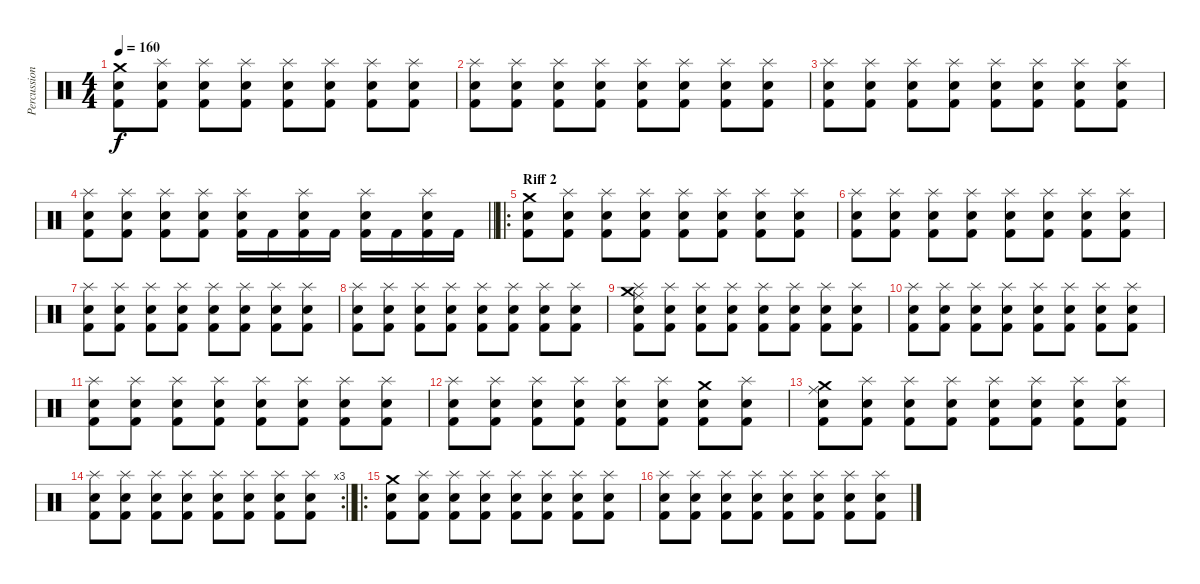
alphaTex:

\track ("Percussions" "Percussion") {instrument percussion}
\staff {score}
\articulation defaults
\ts (4 4)
\tempo 160
\clef neutral
\ks c
("Crash medium (hit)" "Electric Snare (hit)" "Kick (hit) 2").8{dy f} ("Splash (hit)" "Electric Snare (hit)" "Kick (hit) 2").8 ("Splash (hit)" "Electric Snare (hit)" "Kick (hit) 2").8 ("Splash (hit)" "Electric Snare (hit)" "Kick (hit) 2").8 ("Splash (hit)" "Electric Snare (hit)" "Kick (hit) 2").8 ("Splash (hit)" "Electric Snare (hit)" "Kick (hit) 2").8 ("Splash (hit)" "Electric Snare (hit)" "Kick (hit) 2").8 ("Splash (hit)" "Electric Snare (hit)" "Kick (hit) 2").8 |
("Splash (hit)" "Electric Snare (hit)" "Kick (hit) 2").8 ("Splash (hit)" "Electric Snare (hit)" "Kick (hit) 2").8 ("Splash (hit)" "Electric Snare (hit)" "Kick (hit) 2").8 ("Splash (hit)" "Electric Snare (hit)" "Kick (hit) 2").8 ("Splash (hit)" "Electric Snare (hit)" "Kick (hit) 2").8 ("Splash (hit)" "Electric Snare (hit)" "Kick (hit) 2").8 ("Splash (hit)" "Electric Snare (hit)" "Kick (hit) 2").8 ("Splash (hit)" "Electric Snare (hit)" "Kick (hit) 2").8 |
("Splash (hit)" "Electric Snare (hit)" "Kick (hit) 2").8 ("Splash (hit)" "Electric Snare (hit)" "Kick (hit) 2").8 ("Splash (hit)" "Electric Snare (hit)" "Kick (hit) 2").8 ("Splash (hit)" "Electric Snare (hit)" "Kick (hit) 2").8 ("Splash (hit)" "Electric Snare (hit)" "Kick (hit) 2").8 ("Splash (hit)" "Electric Snare (hit)" "Kick (hit) 2").8 ("Splash (hit)" "Electric Snare (hit)" "Kick (hit) 2").8 ("Splash (hit)" "Electric Snare (hit)" "Kick (hit) 2").8 |
\barLineRight lightlight
("Splash (hit)" "Electric Snare (hit)" "Kick (hit) 2").8 ("Splash (hit)" "Electric Snare (hit)" "Kick (hit) 2").8 ("Splash (hit)" "Electric Snare (hit)" "Kick (hit) 2").8 ("Splash (hit)" "Electric Snare (hit)" "Kick (hit) 2").8 ("Splash (hit)" "Electric Snare (hit)" "Kick (hit) 2").16 "Kick (hit) 2".16 ("Splash (hit)" "Electric Snare (hit)" "Kick (hit) 2").16 "Kick (hit) 2".16 ("Splash (hit)" "Electric Snare (hit)" "Kick (hit) 2").16 "Kick (hit) 2".16 ("Splash (hit)" "Electric Snare (hit)" "Kick (hit) 2").16 "Kick (hit) 2".16 |
\ro
\section ("" "Riff 2")
("Crash medium (hit)" "Electric Snare (hit)" "Kick (hit) 2").8 ("Splash (hit)" "Electric Snare (hit)" "Kick (hit) 2").8 ("Splash (hit)" "Electric Snare (hit)" "Kick (hit) 2").8 ("Splash (hit)" "Electric Snare (hit)" "Kick (hit) 2").8 ("Splash (hit)" "Electric Snare (hit)" "Kick (hit) 2").8 ("Splash (hit)" "Electric Snare (hit)" "Kick (hit) 2").8 ("Splash (hit)" "Electric Snare (hit)" "Kick (hit) 2").8 ("Splash (hit)" "Electric Snare (hit)" "Kick (hit) 2").8 |
("Splash (hit)" "Electric Snare (hit)" "Kick (hit) 2").8 ("Splash (hit)" "Electric Snare (hit)" "Kick (hit) 2").8 ("Splash (hit)" "Electric Snare (hit)" "Kick (hit) 2").8 ("Splash (hit)" "Electric Snare (hit)" "Kick (hit) 2").8 ("Splash (hit)" "Electric Snare (hit)" "Kick (hit) 2").8 ("Splash (hit)" "Electric Snare (hit)" "Kick (hit) 2").8 ("Splash (hit)" "Electric Snare (hit)" "Kick (hit) 2").8 ("Splash (hit)" "Electric Snare (hit)" "Kick (hit) 2").8 |
("Splash (hit)" "Electric Snare (hit)" "Kick (hit) 2").8 ("Splash (hit)" "Electric Snare (hit)" "Kick (hit) 2").8 ("Splash (hit)" "Electric Snare (hit)" "Kick (hit) 2").8 ("Splash (hit)" "Electric Snare (hit)" "Kick (hit) 2").8 ("Splash (hit)" "Electric Snare (hit)" "Kick (hit) 2").8 ("Splash (hit)" "Electric Snare (hit)" "Kick (hit) 2").8 ("Splash (hit)" "Electric Snare (hit)" "Kick (hit) 2").8 ("Splash (hit)" "Electric Snare (hit)" "Kick (hit) 2").8 |
("Splash (hit)" "Electric Snare (hit)" "Kick (hit) 2").8 ("Splash (hit)" "Electric Snare (hit)" "Kick (hit) 2").8 ("Splash (hit)" "Electric Snare (hit)" "Kick (hit) 2").8 ("Splash (hit)" "Electric Snare (hit)" "Kick (hit) 2").8 ("Splash (hit)" "Electric Snare (hit)" "Kick (hit) 2").8 ("Splash (hit)" "Electric Snare (hit)" "Kick (hit) 2").8 ("Splash (hit)" "Electric Snare (hit)" "Kick (hit) 2").8 ("Splash (hit)" "Electric Snare (hit)" "Kick (hit) 2").8 |
("Splash (hit)" "Crash medium (hit)" "Electric Snare (hit)" "Ride (middle)" "Kick (hit) 2").8 ("Splash (hit)" "Electric Snare (hit)" "Kick (hit) 2").8 ("Splash (hit)" "Electric Snare (hit)" "Kick (hit) 2").8 ("Splash (hit)" "Electric Snare (hit)" "Kick (hit) 2").8 ("Splash (hit)" "Electric Snare (hit)" "Kick (hit) 2").8 ("Splash (hit)" "Electric Snare (hit)" "Kick (hit) 2").8 ("Splash (hit)" "Electric Snare (hit)" "Kick (hit) 2").8 ("Splash (hit)" "Electric Snare (hit)" "Kick (hit) 2").8 |
("Splash (hit)" "Electric Snare (hit)" "Kick (hit) 2").8 ("Splash (hit)" "Electric Snare (hit)" "Kick (hit) 2").8 ("Splash (hit)" "Electric Snare (hit)" "Kick (hit) 2").8 ("Splash (hit)" "Electric Snare (hit)" "Kick (hit) 2").8 ("Splash (hit)" "Electric Snare (hit)" "Kick (hit) 2").8 ("Splash (hit)" "Electric Snare (hit)" "Kick (hit) 2").8 ("Splash (hit)" "Electric Snare (hit)" "Kick (hit) 2").8 ("Splash (hit)" "Electric Snare (hit)" "Kick (hit) 2").8 |
("Splash (hit)" "Electric Snare (hit)" "Kick (hit) 2").8 ("Splash (hit)" "Electric Snare (hit)" "Kick (hit) 2").8 ("Splash (hit)" "Electric Snare (hit)" "Kick (hit) 2").8 ("Splash (hit)" "Electric Snare (hit)" "Kick (hit) 2").8 ("Splash (hit)" "Electric Snare (hit)" "Kick (hit) 2").8 ("Splash (hit)" "Electric Snare (hit)" "Kick (hit) 2").8 ("Splash (hit)" "Electric Snare (hit)" "Kick (hit) 2").8 ("Splash (hit)" "Electric Snare (hit)" "Kick (hit) 2").8 |
("Splash (hit)" "Electric Snare (hit)" "Kick (hit) 2").8 ("Splash (hit)" "Electric Snare (hit)" "Kick (hit) 2").8 ("Splash (hit)" "Electric Snare (hit)" "Kick (hit) 2").8 ("Splash (hit)" "Electric Snare (hit)" "Kick (hit) 2").8 ("Splash (hit)" "Electric Snare (hit)" "Kick (hit) 2").8 ("Splash (hit)" "Electric Snare (hit)" "Kick (hit) 2").8 ("Crash medium (hit)" "Electric Snare (hit)" "Kick (hit) 2").8 ("Splash (hit)" "Electric Snare (hit)" "Kick (hit) 2").8 |
("Crash medium (hit)" "Ride (middle)" "Electric Snare (hit)" "Kick (hit) 2").8 ("Splash (hit)" "Electric Snare (hit)" "Kick (hit) 2").8 ("Splash (hit)" "Electric Snare (hit)" "Kick (hit) 2").8 ("Splash (hit)" "Electric Snare (hit)" "Kick (hit) 2").8 ("Splash (hit)" "Electric Snare (hit)" "Kick (hit) 2").8 ("Splash (hit)" "Electric Snare (hit)" "Kick (hit) 2").8 ("Splash (hit)" "Electric Snare (hit)" "Kick (hit) 2").8 ("Splash (hit)" "Electric Snare (hit)" "Kick (hit) 2").8 |
\rc 3
\barLineRight lightlight
("Splash (hit)" "Electric Snare (hit)" "Kick (hit) 2").8 ("Splash (hit)" "Electric Snare (hit)" "Kick (hit) 2").8 ("Splash (hit)" "Electric Snare (hit)" "Kick (hit) 2").8 ("Splash (hit)" "Electric Snare (hit)" "Kick (hit) 2").8 ("Splash (hit)" "Electric Snare (hit)" "Kick (hit) 2").8 ("Splash (hit)" "Electric Snare (hit)" "Kick (hit) 2").8 ("Splash (hit)" "Electric Snare (hit)" "Kick (hit) 2").8 ("Splash (hit)" "Electric Snare (hit)" "Kick (hit) 2").8 |
\ro
("Crash medium (hit)" "Electric Snare (hit)" "Kick (hit) 2").8 ("Splash (hit)" "Electric Snare (hit)" "Kick (hit) 2").8 ("Splash (hit)" "Electric Snare (hit)" "Kick (hit) 2").8 ("Splash (hit)" "Electric Snare (hit)" "Kick (hit) 2").8 ("Splash (hit)" "Electric Snare (hit)" "Kick (hit) 2").8 ("Splash (hit)" "Electric Snare (hit)" "Kick (hit) 2").8 ("Splash (hit)" "Electric Snare (hit)" "Kick (hit) 2").8 ("Splash (hit)" "Electric Snare (hit)" "Kick (hit) 2").8 |
("Splash (hit)" "Electric Snare (hit)" "Kick (hit) 2").8 ("Splash (hit)" "Electric Snare (hit)" "Kick (hit) 2").8 ("Splash (hit)" "Electric Snare (hit)" "Kick (hit) 2").8 ("Splash (hit)" "Electric Snare (hit)" "Kick (hit) 2").8 ("Splash (hit)" "Electric Snare (hit)" "Kick (hit) 2").8 ("Splash (hit)" "Electric Snare (hit)" "Kick (hit) 2").8 ("Splash (hit)" "Electric Snare (hit)" "Kick (hit) 2").8 ("Splash (hit)" "Electric Snare (hit)" "Kick (hit) 2").8
